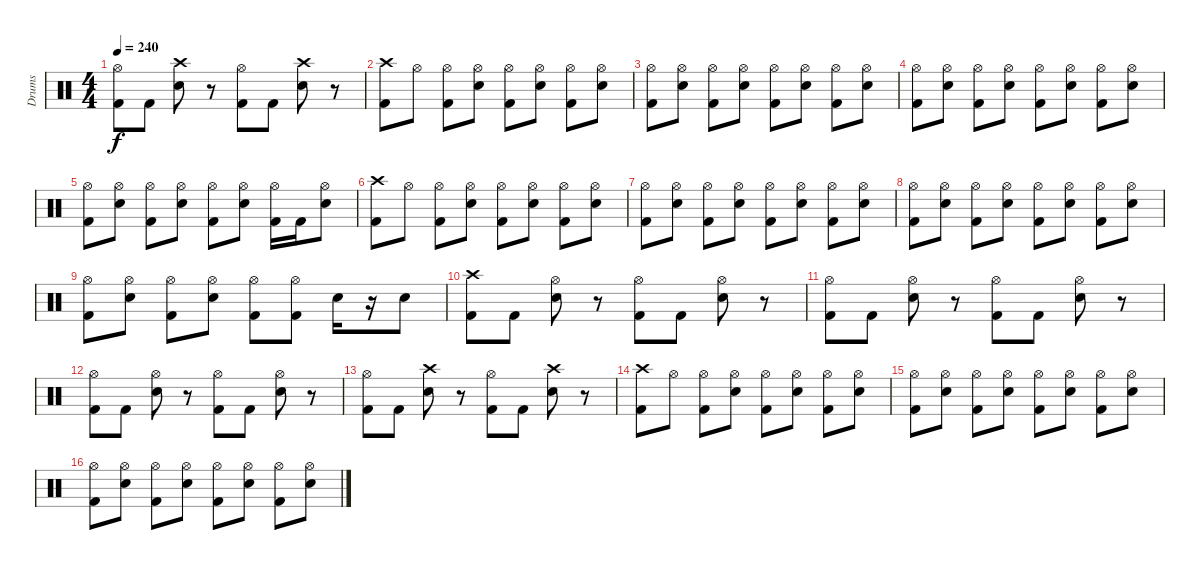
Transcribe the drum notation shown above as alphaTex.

\track ("Drums" "Drums") {instrument percussion}
\staff {score}
\articulation defaults
\ts (4 4)
\tempo 240
\clef neutral
\ks c
("Hi-Hat (open)" "Kick (hit) 2").8{dy f} "Kick (hit) 2".8 ("Crash high (hit)" "Snare (hit) 2").8 r.8 ("Hi-Hat (open)" "Kick (hit) 2").8 "Kick (hit) 2".8 ("Crash high (hit)" "Snare (hit) 2").8 r.8 |
("Crash high (hit)" "Kick (hit) 2").8 "Hi-Hat (open)".8 ("Hi-Hat (open)" "Kick (hit) 2").8 ("Hi-Hat (open)" "Snare (hit) 2").8 ("Hi-Hat (open)" "Kick (hit) 2").8 ("Hi-Hat (open)" "Snare (hit) 2").8 ("Hi-Hat (open)" "Kick (hit) 2").8 ("Hi-Hat (open)" "Snare (hit) 2").8 |
("Hi-Hat (open)" "Kick (hit) 2").8 ("Hi-Hat (open)" "Snare (hit) 2").8 ("Hi-Hat (open)" "Kick (hit) 2").8 ("Hi-Hat (open)" "Snare (hit) 2").8 ("Hi-Hat (open)" "Kick (hit) 2").8 ("Hi-Hat (open)" "Snare (hit) 2").8 ("Hi-Hat (open)" "Kick (hit) 2").8 ("Hi-Hat (open)" "Snare (hit) 2").8 |
("Hi-Hat (open)" "Kick (hit) 2").8 ("Hi-Hat (open)" "Snare (hit) 2").8 ("Hi-Hat (open)" "Kick (hit) 2").8 ("Hi-Hat (open)" "Snare (hit) 2").8 ("Hi-Hat (open)" "Kick (hit) 2").8 ("Hi-Hat (open)" "Snare (hit) 2").8 ("Hi-Hat (open)" "Kick (hit) 2").8 ("Hi-Hat (open)" "Snare (hit) 2").8 |
("Hi-Hat (open)" "Kick (hit) 2").8 ("Hi-Hat (open)" "Snare (hit) 2").8 ("Hi-Hat (open)" "Kick (hit) 2").8 ("Hi-Hat (open)" "Snare (hit) 2").8 ("Hi-Hat (open)" "Kick (hit) 2").8 ("Hi-Hat (open)" "Snare (hit) 2").8 ("Hi-Hat (open)" "Kick (hit) 2").16 "Kick (hit) 2".16 ("Hi-Hat (open)" "Snare (hit) 2").8 |
("Crash high (hit)" "Kick (hit) 2").8 "Hi-Hat (open)".8 ("Hi-Hat (open)" "Kick (hit) 2").8 ("Hi-Hat (open)" "Snare (hit) 2").8 ("Hi-Hat (open)" "Kick (hit) 2").8 ("Hi-Hat (open)" "Snare (hit) 2").8 ("Hi-Hat (open)" "Kick (hit) 2").8 ("Hi-Hat (open)" "Snare (hit) 2").8 |
("Hi-Hat (open)" "Kick (hit) 2").8 ("Hi-Hat (open)" "Snare (hit) 2").8 ("Hi-Hat (open)" "Kick (hit) 2").8 ("Hi-Hat (open)" "Snare (hit) 2").8 ("Hi-Hat (open)" "Kick (hit) 2").8 ("Hi-Hat (open)" "Snare (hit) 2").8 ("Hi-Hat (open)" "Kick (hit) 2").8 ("Hi-Hat (open)" "Snare (hit) 2").8 |
("Hi-Hat (open)" "Kick (hit) 2").8 ("Hi-Hat (open)" "Snare (hit) 2").8 ("Hi-Hat (open)" "Kick (hit) 2").8 ("Hi-Hat (open)" "Snare (hit) 2").8 ("Hi-Hat (open)" "Kick (hit) 2").8 ("Hi-Hat (open)" "Snare (hit) 2").8 ("Hi-Hat (open)" "Kick (hit) 2").8 ("Hi-Hat (open)" "Snare (hit) 2").8 |
("Hi-Hat (open)" "Kick (hit) 2").8 ("Hi-Hat (open)" "Snare (hit) 2").8 ("Hi-Hat (open)" "Kick (hit) 2").8 ("Hi-Hat (open)" "Snare (hit) 2").8 ("Hi-Hat (open)" "Kick (hit) 2").8 ("Hi-Hat (open)" "Kick (hit) 2").8 "Snare (hit) 2".16 r.16 "Snare (hit) 2".8 |
("Crash high (hit)" "Kick (hit) 2").8 "Kick (hit) 2".8 ("Hi-Hat (open)" "Snare (hit) 2").8 r.8 ("Hi-Hat (open)" "Kick (hit) 2").8 "Kick (hit) 2".8 ("Hi-Hat (open)" "Snare (hit) 2").8 r.8 |
("Hi-Hat (open)" "Kick (hit) 2").8 "Kick (hit) 2".8 ("Hi-Hat (open)" "Snare (hit) 2").8 r.8 ("Hi-Hat (open)" "Kick (hit) 2").8 "Kick (hit) 2".8 ("Hi-Hat (open)" "Snare (hit) 2").8 r.8 |
("Hi-Hat (open)" "Kick (hit) 2").8 "Kick (hit) 2".8 ("Hi-Hat (open)" "Snare (hit) 2").8 r.8 ("Hi-Hat (open)" "Kick (hit) 2").8 "Kick (hit) 2".8 ("Hi-Hat (open)" "Snare (hit) 2").8 r.8 |
("Hi-Hat (open)" "Kick (hit) 2").8 "Kick (hit) 2".8 ("Crash high (hit)" "Snare (hit) 2").8 r.8 ("Hi-Hat (open)" "Kick (hit) 2").8 "Kick (hit) 2".8 ("Crash high (hit)" "Snare (hit) 2").8 r.8 |
("Crash high (hit)" "Kick (hit) 2").8 "Hi-Hat (open)".8 ("Hi-Hat (open)" "Kick (hit) 2").8 ("Hi-Hat (open)" "Snare (hit) 2").8 ("Hi-Hat (open)" "Kick (hit) 2").8 ("Hi-Hat (open)" "Snare (hit) 2").8 ("Hi-Hat (open)" "Kick (hit) 2").8 ("Hi-Hat (open)" "Snare (hit) 2").8 |
("Hi-Hat (open)" "Kick (hit) 2").8 ("Hi-Hat (open)" "Snare (hit) 2").8 ("Hi-Hat (open)" "Kick (hit) 2").8 ("Hi-Hat (open)" "Snare (hit) 2").8 ("Hi-Hat (open)" "Kick (hit) 2").8 ("Hi-Hat (open)" "Snare (hit) 2").8 ("Hi-Hat (open)" "Kick (hit) 2").8 ("Hi-Hat (open)" "Snare (hit) 2").8 |
("Hi-Hat (open)" "Kick (hit) 2").8 ("Hi-Hat (open)" "Snare (hit) 2").8 ("Hi-Hat (open)" "Kick (hit) 2").8 ("Hi-Hat (open)" "Snare (hit) 2").8 ("Hi-Hat (open)" "Kick (hit) 2").8 ("Hi-Hat (open)" "Snare (hit) 2").8 ("Hi-Hat (open)" "Kick (hit) 2").8 ("Hi-Hat (open)" "Snare (hit) 2").8
